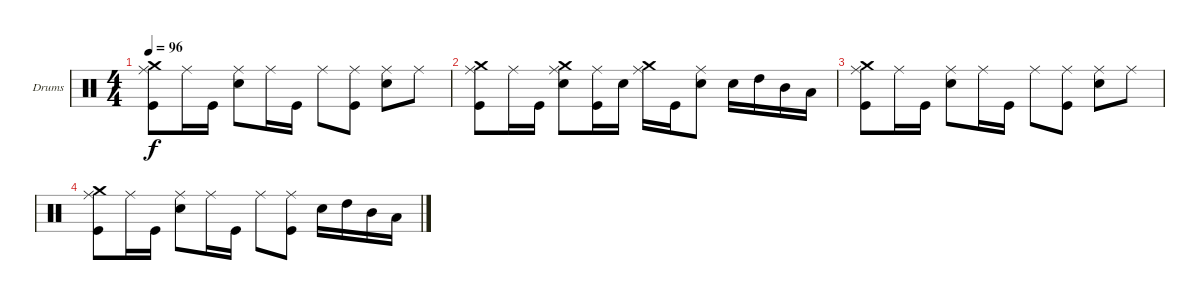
\defaultSystemsLayout 4
\bracketExtendMode groupsimilarinstruments
\firstSystemTrackNameOrientation horizontal
\otherSystemsTrackNameOrientation horizontal
\track ("Drumkit" "Drums") {instrument percussion}
\staff {score}
\articulation defaults
\ts (4 4)
\tempo 96
\clef neutral
\ks c
("Crash medium (hit)" "Ride (middle)" "Kick (hit)").8{dy f} "Ride (middle)".16 "Kick (hit)".16 ("Ride (middle)" "Snare (hit) 2").8 "Ride (middle)".16 "Kick (hit)".16 "Ride (middle)".8 ("Ride (middle)" "Kick (hit)").8 ("Ride (middle)" "Snare (hit) 2").8 "Ride (middle)".8 |
("Crash medium (hit)" "Ride (middle)" "Kick (hit)").8 "Ride (middle)".16 "Kick (hit)".16 ("Crash medium (hit)" "Ride (middle)" "Snare (hit) 2").8 ("Ride (middle)" "Kick (hit)").16 "Snare (hit) 2".16 ("Crash medium (hit)" "Ride (middle)").16 "Kick (hit)".16 ("Ride (middle)" "Snare (hit) 2").8 "Snare (hit) 2".16 "High Tom (hit)".16 "Mid Tom (hit)".16 "Low Tom (hit)".16 |
("Crash medium (hit)" "Ride (middle)" "Kick (hit)").8 "Ride (middle)".16 "Kick (hit)".16 ("Ride (middle)" "Snare (hit) 2").8 "Ride (middle)".16 "Kick (hit)".16 "Ride (middle)".8 ("Ride (middle)" "Kick (hit)").8 ("Ride (middle)" "Snare (hit) 2").8 "Ride (middle)".8 |
("Crash medium (hit)" "Ride (middle)" "Kick (hit)").8 "Ride (middle)".16 "Kick (hit)".16 ("Ride (middle)" "Snare (hit) 2").8 "Ride (middle)".16 "Kick (hit)".16 "Ride (middle)".8 ("Ride (middle)" "Kick (hit)").8 "Snare (hit) 2".16 "High Tom (hit)".16 "Mid Tom (hit)".16 "Low Tom (hit)".16
